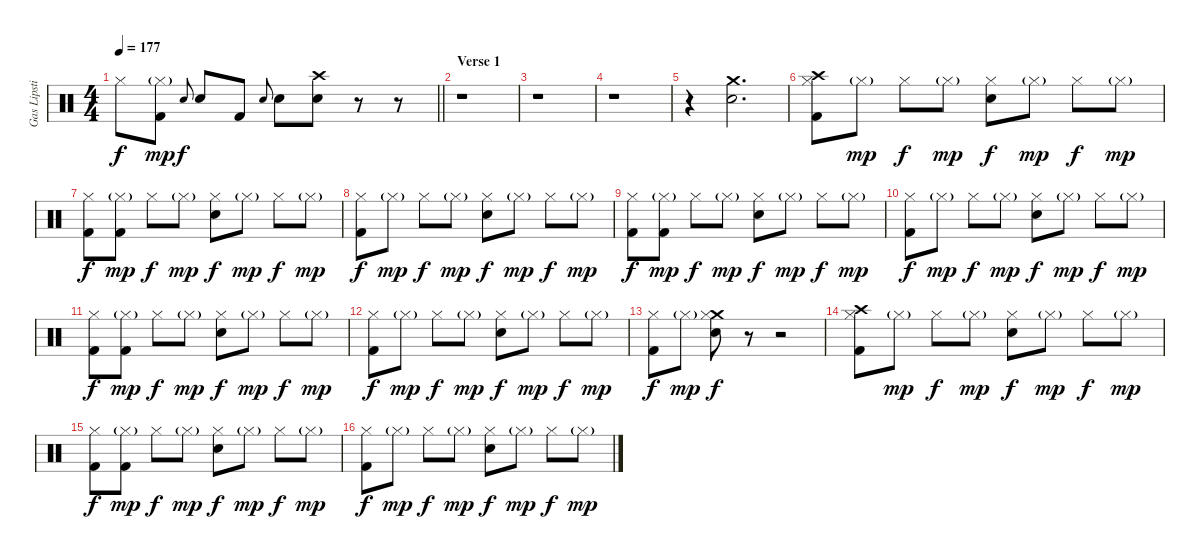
\track ("Gas Lipstick (Drums)" "Gas Lipsti") {instrument percussion}
\staff {score}
\articulation defaults
\ts (4 4)
\tempo 177
\clef neutral
\barLineRight lightlight
\ks c "Hi-Hat (closed)".8{dy f}
("Hi-Hat (closed)"{g} "Kick (hit) 2").8{dy mp} "Snare (hit) 2".8{gr onbeat dy f} "Snare (hit) 2".8 "Kick (hit) 2".8 "Snare (hit) 2".8{gr onbeat} "Snare (hit) 2".8 ("Crash high (hit)" "Snare (hit) 2").8 r.8 r.8 |
\section ("" "Verse 1")
r.1 |
r.1 |
r.1 |
r.4 ("Crash medium (hit)" "Snare (hit) 2").2{d} |
("Crash high (hit)" "Hi-Hat (closed)" "Kick (hit) 2").8 "Hi-Hat (closed)"{g}.8{dy mp} "Hi-Hat (closed)".8{dy f} "Hi-Hat (closed)"{g}.8{dy mp} ("Hi-Hat (closed)" "Snare (hit) 2").8{dy f} "Hi-Hat (closed)"{g}.8{dy mp} "Hi-Hat (closed)".8{dy f} "Hi-Hat (closed)"{g}.8{dy mp} |
("Hi-Hat (closed)" "Kick (hit) 2").8{dy f} ("Hi-Hat (closed)"{g} "Kick (hit) 2").8{dy mp} "Hi-Hat (closed)".8{dy f} "Hi-Hat (closed)"{g}.8{dy mp} ("Hi-Hat (closed)" "Snare (hit) 2").8{dy f} "Hi-Hat (closed)"{g}.8{dy mp} "Hi-Hat (closed)".8{dy f} "Hi-Hat (closed)"{g}.8{dy mp} |
("Hi-Hat (closed)" "Kick (hit) 2").8{dy f} "Hi-Hat (closed)"{g}.8{dy mp} "Hi-Hat (closed)".8{dy f} "Hi-Hat (closed)"{g}.8{dy mp} ("Hi-Hat (closed)" "Snare (hit) 2").8{dy f} "Hi-Hat (closed)"{g}.8{dy mp} "Hi-Hat (closed)".8{dy f} "Hi-Hat (closed)"{g}.8{dy mp} |
("Hi-Hat (closed)" "Kick (hit) 2").8{dy f} ("Hi-Hat (closed)"{g} "Kick (hit) 2").8{dy mp} "Hi-Hat (closed)".8{dy f} "Hi-Hat (closed)"{g}.8{dy mp} ("Hi-Hat (closed)" "Snare (hit) 2").8{dy f} "Hi-Hat (closed)"{g}.8{dy mp} "Hi-Hat (closed)".8{dy f} "Hi-Hat (closed)"{g}.8{dy mp} |
("Hi-Hat (closed)" "Kick (hit) 2").8{dy f} "Hi-Hat (closed)"{g}.8{dy mp} "Hi-Hat (closed)".8{dy f} "Hi-Hat (closed)"{g}.8{dy mp} ("Hi-Hat (closed)" "Snare (hit) 2").8{dy f} "Hi-Hat (closed)"{g}.8{dy mp} "Hi-Hat (closed)".8{dy f} "Hi-Hat (closed)"{g}.8{dy mp} |
("Hi-Hat (closed)" "Kick (hit) 2").8{dy f} ("Hi-Hat (closed)"{g} "Kick (hit) 2").8{dy mp} "Hi-Hat (closed)".8{dy f} "Hi-Hat (closed)"{g}.8{dy mp} ("Hi-Hat (closed)" "Snare (hit) 2").8{dy f} "Hi-Hat (closed)"{g}.8{dy mp} "Hi-Hat (closed)".8{dy f} "Hi-Hat (closed)"{g}.8{dy mp} |
("Hi-Hat (closed)" "Kick (hit) 2").8{dy f} "Hi-Hat (closed)"{g}.8{dy mp} "Hi-Hat (closed)".8{dy f} "Hi-Hat (closed)"{g}.8{dy mp} ("Hi-Hat (closed)" "Snare (hit) 2").8{dy f} "Hi-Hat (closed)"{g}.8{dy mp} "Hi-Hat (closed)".8{dy f} "Hi-Hat (closed)"{g}.8{dy mp} |
("Hi-Hat (closed)" "Kick (hit) 2").8{dy f} "Hi-Hat (closed)"{g}.8{dy mp} ("Crash medium (hit)" "Hi-Hat (closed)" "Snare (hit) 2").8{dy f} r.8 r.2 |
("Crash high (hit)" "Hi-Hat (closed)" "Kick (hit) 2").8 "Hi-Hat (closed)"{g}.8{dy mp} "Hi-Hat (closed)".8{dy f} "Hi-Hat (closed)"{g}.8{dy mp} ("Hi-Hat (closed)" "Snare (hit) 2").8{dy f} "Hi-Hat (closed)"{g}.8{dy mp} "Hi-Hat (closed)".8{dy f} "Hi-Hat (closed)"{g}.8{dy mp} |
("Hi-Hat (closed)" "Kick (hit) 2").8{dy f} ("Hi-Hat (closed)"{g} "Kick (hit) 2").8{dy mp} "Hi-Hat (closed)".8{dy f} "Hi-Hat (closed)"{g}.8{dy mp} ("Hi-Hat (closed)" "Snare (hit) 2").8{dy f} "Hi-Hat (closed)"{g}.8{dy mp} "Hi-Hat (closed)".8{dy f} "Hi-Hat (closed)"{g}.8{dy mp} |
("Hi-Hat (closed)" "Kick (hit) 2").8{dy f} "Hi-Hat (closed)"{g}.8{dy mp} "Hi-Hat (closed)".8{dy f} "Hi-Hat (closed)"{g}.8{dy mp} ("Hi-Hat (closed)" "Snare (hit) 2").8{dy f} "Hi-Hat (closed)"{g}.8{dy mp} "Hi-Hat (closed)".8{dy f} "Hi-Hat (closed)"{g}.8{dy mp}
